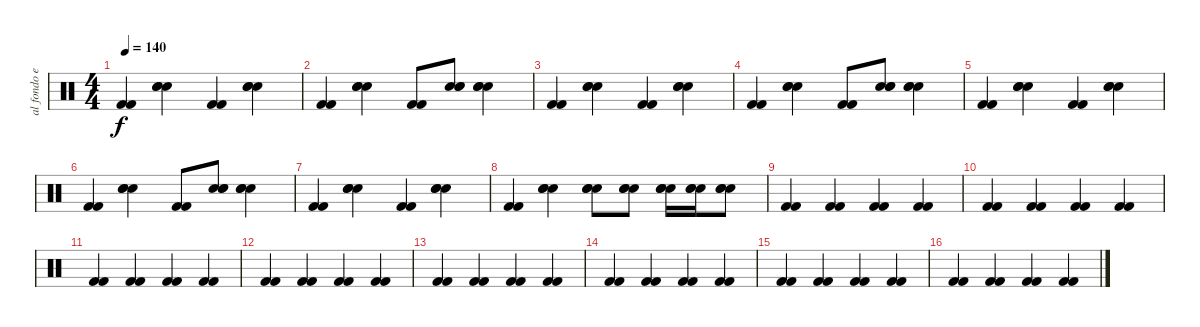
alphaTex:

\track ("al fondo en la bateria Mr Pedro Andreu" "al fondo e") {instrument percussion}
\staff {score}
\articulation defaults
\ts (4 4)
\tempo 140
\clef neutral
\ks c
("Kick (hit) 2" "Kick (hit) 2").4{dy f} ("Snare (hit) 2" "Snare (hit) 2" "Snare (hit) 2").4 ("Kick (hit) 2" "Kick (hit) 2").4 ("Snare (hit) 2" "Snare (hit) 2" "Snare (hit) 2").4 |
("Kick (hit) 2" "Kick (hit) 2").4 ("Snare (hit) 2" "Snare (hit) 2" "Snare (hit) 2").4 ("Kick (hit) 2" "Kick (hit) 2").8 ("Snare (hit) 2" "Snare (hit) 2" "Snare (hit) 2").8 ("Snare (hit) 2" "Snare (hit) 2" "Snare (hit) 2").4 |
("Kick (hit) 2" "Kick (hit) 2").4 ("Snare (hit) 2" "Snare (hit) 2" "Snare (hit) 2").4 ("Kick (hit) 2" "Kick (hit) 2").4 ("Snare (hit) 2" "Snare (hit) 2" "Snare (hit) 2").4 |
("Kick (hit) 2" "Kick (hit) 2").4 ("Snare (hit) 2" "Snare (hit) 2" "Snare (hit) 2").4 ("Kick (hit) 2" "Kick (hit) 2").8 ("Snare (hit) 2" "Snare (hit) 2" "Snare (hit) 2").8 ("Snare (hit) 2" "Snare (hit) 2" "Snare (hit) 2").4 |
("Kick (hit) 2" "Kick (hit) 2").4 ("Snare (hit) 2" "Snare (hit) 2" "Snare (hit) 2").4 ("Kick (hit) 2" "Kick (hit) 2").4 ("Snare (hit) 2" "Snare (hit) 2" "Snare (hit) 2").4 |
("Kick (hit) 2" "Kick (hit) 2").4 ("Snare (hit) 2" "Snare (hit) 2" "Snare (hit) 2").4 ("Kick (hit) 2" "Kick (hit) 2").8 ("Snare (hit) 2" "Snare (hit) 2" "Snare (hit) 2").8 ("Snare (hit) 2" "Snare (hit) 2" "Snare (hit) 2").4 |
("Kick (hit) 2" "Kick (hit) 2").4 ("Snare (hit) 2" "Snare (hit) 2" "Snare (hit) 2").4 ("Kick (hit) 2" "Kick (hit) 2").4 ("Snare (hit) 2" "Snare (hit) 2" "Snare (hit) 2").4 |
("Kick (hit) 2" "Kick (hit) 2").4 ("Snare (hit) 2" "Snare (hit) 2" "Snare (hit) 2").4 ("Snare (hit) 2" "Snare (hit) 2" "Snare (hit) 2").8 ("Snare (hit) 2" "Snare (hit) 2" "Snare (hit) 2").8 ("Snare (hit) 2" "Snare (hit) 2" "Snare (hit) 2").16 ("Snare (hit) 2" "Snare (hit) 2" "Snare (hit) 2").16 ("Snare (hit) 2" "Snare (hit) 2" "Snare (hit) 2").8 |
("Kick (hit) 2" "Kick (hit) 2").4 ("Kick (hit) 2" "Kick (hit) 2").4 ("Kick (hit) 2" "Kick (hit) 2").4 ("Kick (hit) 2" "Kick (hit) 2").4 |
("Kick (hit) 2" "Kick (hit) 2").4 ("Kick (hit) 2" "Kick (hit) 2").4 ("Kick (hit) 2" "Kick (hit) 2").4 ("Kick (hit) 2" "Kick (hit) 2").4 |
("Kick (hit) 2" "Kick (hit) 2").4 ("Kick (hit) 2" "Kick (hit) 2").4 ("Kick (hit) 2" "Kick (hit) 2").4 ("Kick (hit) 2" "Kick (hit) 2").4 |
("Kick (hit) 2" "Kick (hit) 2").4 ("Kick (hit) 2" "Kick (hit) 2").4 ("Kick (hit) 2" "Kick (hit) 2").4 ("Kick (hit) 2" "Kick (hit) 2").4 |
("Kick (hit) 2" "Kick (hit) 2").4 ("Kick (hit) 2" "Kick (hit) 2").4 ("Kick (hit) 2" "Kick (hit) 2").4 ("Kick (hit) 2" "Kick (hit) 2").4 |
("Kick (hit) 2" "Kick (hit) 2").4 ("Kick (hit) 2" "Kick (hit) 2").4 ("Kick (hit) 2" "Kick (hit) 2").4 ("Kick (hit) 2" "Kick (hit) 2").4 |
("Kick (hit) 2" "Kick (hit) 2").4 ("Kick (hit) 2" "Kick (hit) 2").4 ("Kick (hit) 2" "Kick (hit) 2").4 ("Kick (hit) 2" "Kick (hit) 2").4 |
("Kick (hit) 2" "Kick (hit) 2").4 ("Kick (hit) 2" "Kick (hit) 2").4 ("Kick (hit) 2" "Kick (hit) 2").4 ("Kick (hit) 2" "Kick (hit) 2").4
